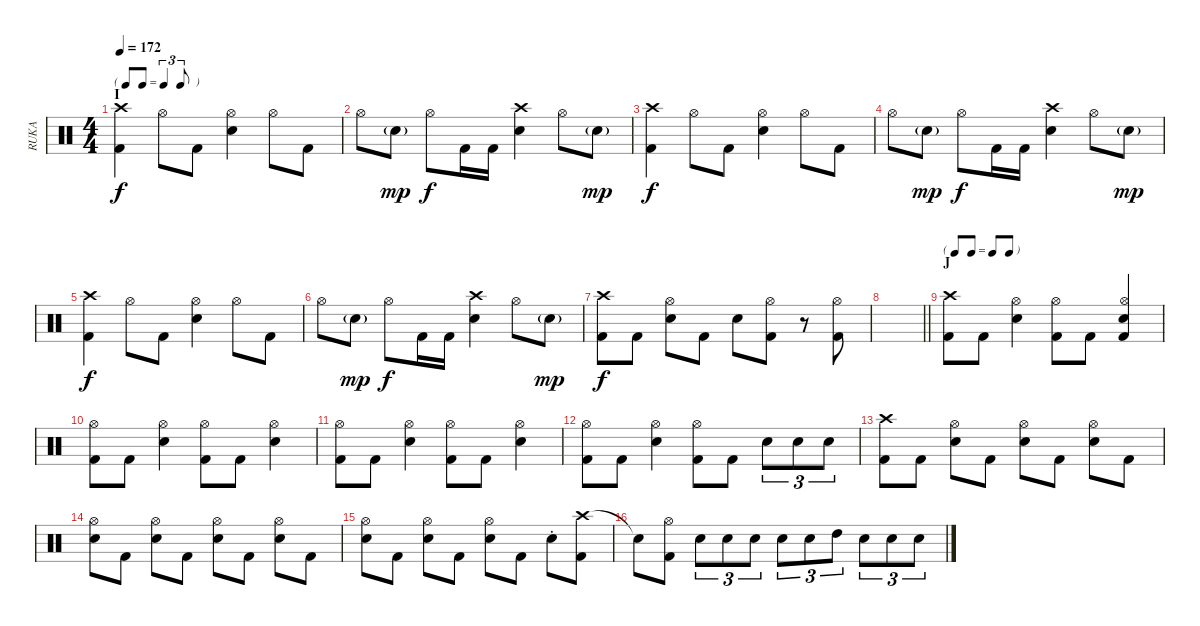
\track ("RUKA" "RUKA") {instrument percussion}
\staff {score}
\articulation defaults
\ts (4 4)
\tf triplet8th
\section ("" "I")
\tempo 172
\clef neutral
\ks c
("Crash high (hit)" "Kick (hit) 2").4{dy f} "Hi-Hat (open)".8 "Kick (hit) 2".8 ("Hi-Hat (open)" "Snare (hit) 2").4 "Hi-Hat (open)".8 "Kick (hit) 2".8 |
"Hi-Hat (open)".8 "Snare (hit) 2"{g}.8{dy mp} "Hi-Hat (open)".8{dy f} "Kick (hit) 2".16 "Kick (hit) 2".16 ("Crash high (hit)" "Snare (hit) 2").4 "Hi-Hat (open)".8 "Snare (hit) 2"{g}.8{dy mp} |
("Crash high (hit)" "Kick (hit) 2").4{dy f} "Hi-Hat (open)".8 "Kick (hit) 2".8 ("Hi-Hat (open)" "Snare (hit) 2").4 "Hi-Hat (open)".8 "Kick (hit) 2".8 |
"Hi-Hat (open)".8 "Snare (hit) 2"{g}.8{dy mp} "Hi-Hat (open)".8{dy f} "Kick (hit) 2".16 "Kick (hit) 2".16 ("Crash high (hit)" "Snare (hit) 2").4 "Hi-Hat (open)".8 "Snare (hit) 2"{g}.8{dy mp} |
("Crash high (hit)" "Kick (hit) 2").4{dy f} "Hi-Hat (open)".8 "Kick (hit) 2".8 ("Hi-Hat (open)" "Snare (hit) 2").4 "Hi-Hat (open)".8 "Kick (hit) 2".8 |
"Hi-Hat (open)".8 "Snare (hit) 2"{g}.8{dy mp} "Hi-Hat (open)".8{dy f} "Kick (hit) 2".16 "Kick (hit) 2".16 ("Crash high (hit)" "Snare (hit) 2").4 "Hi-Hat (open)".8 "Snare (hit) 2"{g}.8{dy mp} |
("Crash high (hit)" "Kick (hit) 2").8{dy f} "Kick (hit) 2".8 ("Hi-Hat (open)" "Snare (hit) 2").8 "Kick (hit) 2".8 "Snare (hit) 2".8 ("Hi-Hat (open)" "Kick (hit) 2").8 r.8 ("Hi-Hat (open)" "Kick (hit) 2").8 |
\barLineRight lightlight
|
\tf none
\section ("" "J")
("Crash high (hit)" "Kick (hit) 2").8 "Kick (hit) 2".8 ("Hi-Hat (open)" "Snare (hit) 2").4 ("Hi-Hat (open)" "Kick (hit) 2").8 "Kick (hit) 2".8 ("Hi-Hat (open)" "Snare (hit) 2" "Kick (hit) 2").4 |
("Hi-Hat (open)" "Kick (hit) 2").8 "Kick (hit) 2".8 ("Hi-Hat (open)" "Snare (hit) 2").4 ("Hi-Hat (open)" "Kick (hit) 2").8 "Kick (hit) 2".8 ("Hi-Hat (open)" "Snare (hit) 2").4 |
("Hi-Hat (open)" "Kick (hit) 2").8 "Kick (hit) 2".8 ("Hi-Hat (open)" "Snare (hit) 2").4 ("Hi-Hat (open)" "Kick (hit) 2").8 "Kick (hit) 2".8 ("Hi-Hat (open)" "Snare (hit) 2").4 |
("Hi-Hat (open)" "Kick (hit) 2").8 "Kick (hit) 2".8 ("Hi-Hat (open)" "Snare (hit) 2").4 ("Hi-Hat (open)" "Kick (hit) 2").8 "Kick (hit) 2".8 "Snare (hit) 2".8{tu (3 2)} "Snare (hit) 2".8{tu (3 2)} "Snare (hit) 2".8{tu (3 2)} |
("Crash high (hit)" "Kick (hit) 2").8 "Kick (hit) 2".8 ("Hi-Hat (open)" "Snare (hit) 2").8 "Kick (hit) 2".8 ("Hi-Hat (open)" "Snare (hit) 2").8 "Kick (hit) 2".8 ("Hi-Hat (open)" "Snare (hit) 2").8 "Kick (hit) 2".8 |
("Hi-Hat (open)" "Snare (hit) 2").8 "Kick (hit) 2".8 ("Hi-Hat (open)" "Snare (hit) 2").8 "Kick (hit) 2".8 ("Hi-Hat (open)" "Snare (hit) 2").8 "Kick (hit) 2".8 ("Hi-Hat (open)" "Snare (hit) 2").8 "Kick (hit) 2".8 |
("Hi-Hat (open)" "Snare (hit) 2").8 "Kick (hit) 2".8 ("Hi-Hat (open)" "Snare (hit) 2").8 "Kick (hit) 2".8 ("Hi-Hat (open)" "Snare (hit) 2").8 "Kick (hit) 2".8 "Snare (hit) 2"{st}.8 ("Crash high (hit)" "Kick (hit) 2").8 |
"Snare (hit)"{t}.8 ("Hi-Hat (open)" "Kick (hit) 2").8 "Snare (hit) 2".8{tu (3 2)} "Snare (hit) 2".8{tu (3 2)} "Snare (hit) 2".8{tu (3 2)} "Snare (hit) 2".8{tu (3 2)} "Snare (hit) 2".8{tu (3 2)} "High Tom (hit)".8{tu (3 2)} "Snare (hit) 2".8{tu (3 2)} "Snare (hit) 2".8{tu (3 2)} "Snare (hit) 2".8{tu (3 2)}
